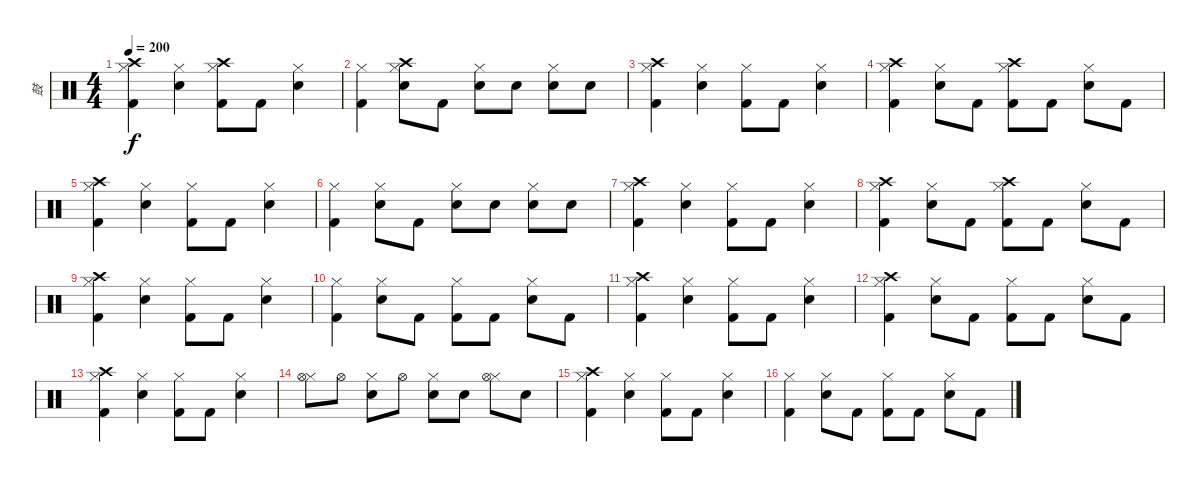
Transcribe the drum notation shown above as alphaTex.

\track ("鼓" "鼓") {instrument percussion}
\staff {score}
\articulation defaults
\ts (4 4)
\tempo 200
\clef neutral
\ks c
("Hi-Hat (closed)" "Crash high (hit)" "Kick (hit) 2").4{dy f} ("Hi-Hat (closed)" "Snare (hit) 2").4 ("Hi-Hat (closed)" "Crash high (hit)" "Kick (hit) 2").8 "Kick (hit) 2".8 ("Hi-Hat (closed)" "Snare (hit) 2").4 |
("Hi-Hat (closed)" "Kick (hit) 2").4 ("Hi-Hat (closed)" "Crash high (hit)" "Snare (hit) 2").8 "Kick (hit) 2".8 ("Hi-Hat (closed)" "Snare (hit) 2").8 "Snare (hit) 2".8 ("Hi-Hat (closed)" "Snare (hit) 2").8 "Snare (hit) 2".8 |
("Hi-Hat (closed)" "Crash high (hit)" "Kick (hit) 2").4 ("Hi-Hat (closed)" "Snare (hit) 2").4 ("Hi-Hat (closed)" "Kick (hit) 2").8 "Kick (hit) 2".8 ("Hi-Hat (closed)" "Snare (hit) 2").4 |
("Hi-Hat (closed)" "Crash high (hit)" "Kick (hit) 2").4 ("Hi-Hat (closed)" "Snare (hit) 2").8 "Kick (hit) 2".8 ("Hi-Hat (closed)" "Crash high (hit)" "Kick (hit) 2").8 "Kick (hit) 2".8 ("Hi-Hat (closed)" "Snare (hit) 2").8 "Kick (hit) 2".8 |
("Hi-Hat (closed)" "Crash high (hit)" "Kick (hit) 2").4 ("Hi-Hat (closed)" "Snare (hit) 2").4 ("Hi-Hat (closed)" "Kick (hit) 2").8 "Kick (hit) 2".8 ("Hi-Hat (closed)" "Snare (hit) 2").4 |
("Hi-Hat (closed)" "Kick (hit) 2").4 ("Hi-Hat (closed)" "Snare (hit) 2").8 "Kick (hit) 2".8 ("Hi-Hat (closed)" "Snare (hit) 2").8 "Snare (hit) 2".8 ("Hi-Hat (closed)" "Snare (hit) 2").8 "Snare (hit) 2".8 |
("Hi-Hat (closed)" "Crash high (hit)" "Kick (hit) 2").4 ("Hi-Hat (closed)" "Snare (hit) 2").4 ("Hi-Hat (closed)" "Kick (hit) 2").8 "Kick (hit) 2".8 ("Hi-Hat (closed)" "Snare (hit) 2").4 |
("Hi-Hat (closed)" "Crash high (hit)" "Kick (hit) 2").4 ("Hi-Hat (closed)" "Snare (hit) 2").8 "Kick (hit) 2".8 ("Hi-Hat (closed)" "Crash high (hit)" "Kick (hit) 2").8 "Kick (hit) 2".8 ("Hi-Hat (closed)" "Snare (hit) 2").8 "Kick (hit) 2".8 |
("Hi-Hat (closed)" "Crash high (hit)" "Kick (hit) 2").4 ("Hi-Hat (closed)" "Snare (hit) 2").4 ("Hi-Hat (closed)" "Kick (hit) 2").8 "Kick (hit) 2".8 ("Hi-Hat (closed)" "Snare (hit) 2").4 |
("Hi-Hat (closed)" "Kick (hit) 2").4 ("Hi-Hat (closed)" "Snare (hit) 2").8 "Kick (hit) 2".8 ("Hi-Hat (closed)" "Kick (hit) 2").8 "Kick (hit) 2".8 ("Hi-Hat (closed)" "Snare (hit) 2").8 "Kick (hit) 2".8 |
("Hi-Hat (closed)" "Crash high (hit)" "Kick (hit) 2").4 ("Hi-Hat (closed)" "Snare (hit) 2").4 ("Hi-Hat (closed)" "Kick (hit) 2").8 "Kick (hit) 2".8 ("Hi-Hat (closed)" "Snare (hit) 2").4 |
("Hi-Hat (closed)" "Crash high (hit)" "Kick (hit) 2").4 ("Hi-Hat (closed)" "Snare (hit) 2").8 "Kick (hit) 2".8 ("Hi-Hat (closed)" "Kick (hit) 2").8 "Kick (hit) 2".8 ("Hi-Hat (closed)" "Snare (hit) 2").8 "Kick (hit) 2".8 |
("Hi-Hat (closed)" "Crash high (hit)" "Kick (hit) 2").4 ("Hi-Hat (closed)" "Snare (hit) 2").4 ("Hi-Hat (closed)" "Kick (hit) 2").8 "Kick (hit) 2".8 ("Hi-Hat (closed)" "Snare (hit) 2").4 |
("Hi-Hat (closed)" "Hi-Hat (open)").8 "Hi-Hat (open)".8 ("Hi-Hat (closed)" "Snare (hit) 2").8 "Hi-Hat (open)".8 ("Hi-Hat (closed)" "Snare (hit) 2").8 "Snare (hit) 2".8 ("Hi-Hat (closed)" "Hi-Hat (open)").8 "Snare (hit) 2".8 |
("Hi-Hat (closed)" "Crash high (hit)" "Kick (hit) 2").4 ("Hi-Hat (closed)" "Snare (hit) 2").4 ("Hi-Hat (closed)" "Kick (hit) 2").8 "Kick (hit) 2".8 ("Hi-Hat (closed)" "Snare (hit) 2").4 |
("Hi-Hat (closed)" "Kick (hit) 2").4 ("Hi-Hat (closed)" "Snare (hit) 2").8 "Kick (hit) 2".8 ("Hi-Hat (closed)" "Kick (hit) 2").8 "Kick (hit) 2".8 ("Hi-Hat (closed)" "Snare (hit) 2").8 "Kick (hit) 2".8
